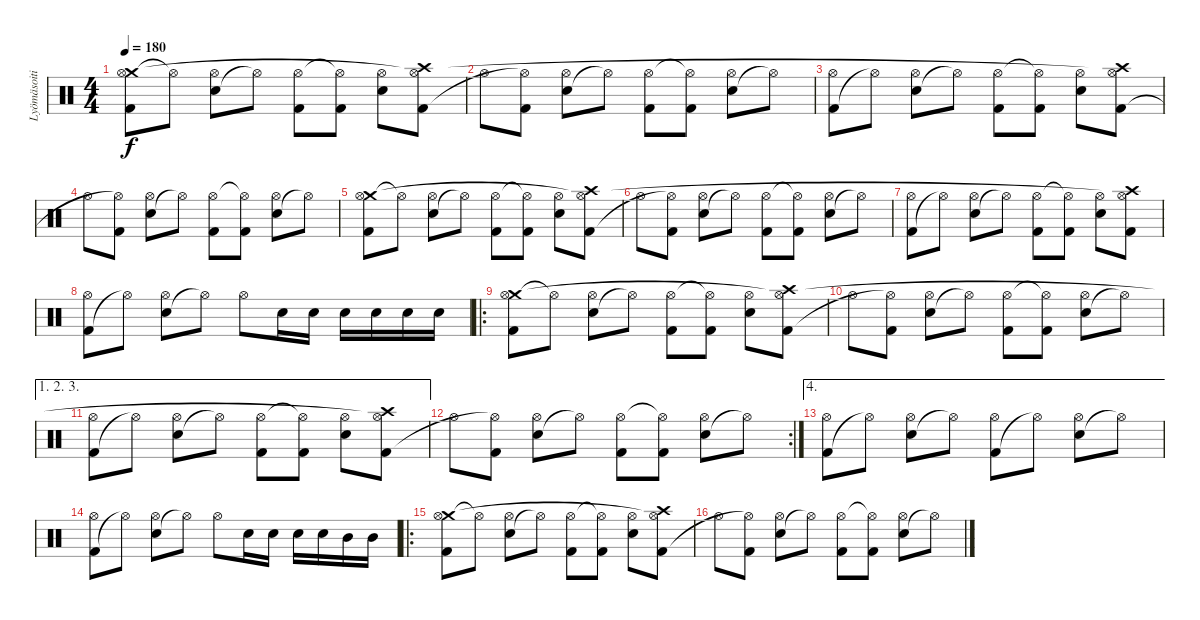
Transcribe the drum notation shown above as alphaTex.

\track ("Lyömäsoitin" "Lyömäsoiti") {instrument percussion}
\staff {score}
\articulation defaults
\ts (4 4)
\tempo 180
\clef neutral
\ks c
("Crash medium (hit)" "Kick (hit) 2" "Hi-Hat (open)").8{dy f} "Hi-Hat (open)"{t}.8 ("Electric Snare (hit)" "Hi-Hat (open)").8 "Hi-Hat (open)"{t}.8 ("Kick (hit) 2" "Hi-Hat (open)").8 ("Kick (hit) 2" "Hi-Hat (open)"{t}).8 ("Electric Snare (hit)" "Hi-Hat (open)").8 ("Crash high (hit)" "Kick (hit) 2" "Hi-Hat (open)"{t}).8 |
"Hi-Hat (open)".8 ("Kick (hit) 2" "Hi-Hat (open)"{t}).8 ("Electric Snare (hit)" "Hi-Hat (open)").8 "Hi-Hat (open)"{t}.8 ("Kick (hit) 2" "Hi-Hat (open)").8 ("Kick (hit) 2" "Hi-Hat (open)"{t}).8 ("Electric Snare (hit)" "Hi-Hat (open)").8 "Hi-Hat (open)"{t}.8 |
("Kick (hit) 2" "Hi-Hat (open)").8 "Hi-Hat (open)"{t}.8 ("Electric Snare (hit)" "Hi-Hat (open)").8 "Hi-Hat (open)"{t}.8 ("Kick (hit) 2" "Hi-Hat (open)").8 ("Kick (hit) 2" "Hi-Hat (open)"{t}).8 ("Electric Snare (hit)" "Hi-Hat (open)").8 ("Crash high (hit)" "Kick (hit) 2" "Hi-Hat (open)"{t}).8 |
"Hi-Hat (open)".8 ("Kick (hit) 2" "Hi-Hat (open)"{t}).8 ("Electric Snare (hit)" "Hi-Hat (open)").8 "Hi-Hat (open)"{t}.8 ("Kick (hit) 2" "Hi-Hat (open)").8 ("Kick (hit) 2" "Hi-Hat (open)"{t}).8 ("Electric Snare (hit)" "Hi-Hat (open)").8 "Hi-Hat (open)"{t}.8 |
("Crash medium (hit)" "Kick (hit) 2" "Hi-Hat (open)").8 "Hi-Hat (open)"{t}.8 ("Electric Snare (hit)" "Hi-Hat (open)").8 "Hi-Hat (open)"{t}.8 ("Kick (hit) 2" "Hi-Hat (open)").8 ("Kick (hit) 2" "Hi-Hat (open)"{t}).8 ("Electric Snare (hit)" "Hi-Hat (open)").8 ("Crash high (hit)" "Kick (hit) 2" "Hi-Hat (open)"{t}).8 |
"Hi-Hat (open)".8 ("Kick (hit) 2" "Hi-Hat (open)"{t}).8 ("Electric Snare (hit)" "Hi-Hat (open)").8 "Hi-Hat (open)"{t}.8 ("Kick (hit) 2" "Hi-Hat (open)").8 ("Kick (hit) 2" "Hi-Hat (open)"{t}).8 ("Electric Snare (hit)" "Hi-Hat (open)").8 "Hi-Hat (open)"{t}.8 |
("Kick (hit) 2" "Hi-Hat (open)").8 "Hi-Hat (open)"{t}.8 ("Electric Snare (hit)" "Hi-Hat (open)").8 "Hi-Hat (open)"{t}.8 ("Kick (hit) 2" "Hi-Hat (open)").8 ("Kick (hit) 2" "Hi-Hat (open)"{t}).8 ("Electric Snare (hit)" "Hi-Hat (open)").8 ("Crash high (hit)" "Kick (hit) 2" "Hi-Hat (open)"{t}).8 |
("Kick (hit) 2" "Hi-Hat (open)").8 "Hi-Hat (open)"{t}.8 ("Electric Snare (hit)" "Hi-Hat (open)").8 "Hi-Hat (open)"{t}.8 "Hi-Hat (open)".8 "Electric Snare (hit)".16 "Electric Snare (hit)".16 "Electric Snare (hit)".16 "Electric Snare (hit)".16 "Electric Snare (hit)".16 "Electric Snare (hit)".16 |
\ro
("Crash medium (hit)" "Kick (hit) 2" "Hi-Hat (open)").8 "Hi-Hat (open)"{t}.8 ("Electric Snare (hit)" "Hi-Hat (open)").8 "Hi-Hat (open)"{t}.8 ("Kick (hit) 2" "Hi-Hat (open)").8 ("Kick (hit) 2" "Hi-Hat (open)"{t}).8 ("Electric Snare (hit)" "Hi-Hat (open)").8 ("Crash high (hit)" "Kick (hit) 2" "Hi-Hat (open)"{t}).8 |
"Hi-Hat (open)".8 ("Kick (hit) 2" "Hi-Hat (open)"{t}).8 ("Electric Snare (hit)" "Hi-Hat (open)").8 "Hi-Hat (open)"{t}.8 ("Kick (hit) 2" "Hi-Hat (open)").8 ("Kick (hit) 2" "Hi-Hat (open)"{t}).8 ("Electric Snare (hit)" "Hi-Hat (open)").8 "Hi-Hat (open)"{t}.8 |
\ae (1 2 3)
("Kick (hit) 2" "Hi-Hat (open)").8 "Hi-Hat (open)"{t}.8 ("Electric Snare (hit)" "Hi-Hat (open)").8 "Hi-Hat (open)"{t}.8 ("Kick (hit) 2" "Hi-Hat (open)").8 ("Kick (hit) 2" "Hi-Hat (open)"{t}).8 ("Electric Snare (hit)" "Hi-Hat (open)").8 ("Crash high (hit)" "Kick (hit) 2" "Hi-Hat (open)"{t}).8 |
\rc 2 "Hi-Hat (open)".8
("Kick (hit) 2" "Hi-Hat (open)"{t}).8 ("Electric Snare (hit)" "Hi-Hat (open)").8 "Hi-Hat (open)"{t}.8 ("Kick (hit) 2" "Hi-Hat (open)").8 ("Kick (hit) 2" "Hi-Hat (open)"{t}).8 ("Electric Snare (hit)" "Hi-Hat (open)").8 "Hi-Hat (open)"{t}.8 |
\ae 4
("Kick (hit) 2" "Hi-Hat (open)").8 "Hi-Hat (open)"{t}.8 ("Electric Snare (hit)" "Hi-Hat (open)").8 "Hi-Hat (open)"{t}.8 ("Kick (hit) 2" "Hi-Hat (open)").8 "Hi-Hat (open)"{t}.8 ("Electric Snare (hit)" "Hi-Hat (open)").8 "Hi-Hat (open)"{t}.8 |
("Kick (hit) 2" "Hi-Hat (open)").8 "Hi-Hat (open)"{t}.8 ("Electric Snare (hit)" "Hi-Hat (open)").8 "Hi-Hat (open)"{t}.8 "Hi-Hat (open)".8 "Electric Snare (hit)".16 "Electric Snare (hit)".16 "Electric Snare (hit)".16 "Electric Snare (hit)".16 "Mid Tom (hit)".16 "Mid Tom (hit)".16 |
\ro
("Crash medium (hit)" "Kick (hit) 2" "Hi-Hat (open)").8 "Hi-Hat (open)"{t}.8 ("Electric Snare (hit)" "Hi-Hat (open)").8 "Hi-Hat (open)"{t}.8 ("Kick (hit) 2" "Hi-Hat (open)").8 ("Kick (hit) 2" "Hi-Hat (open)"{t}).8 ("Electric Snare (hit)" "Hi-Hat (open)").8 ("Crash high (hit)" "Kick (hit) 2" "Hi-Hat (open)"{t}).8 |
"Hi-Hat (open)".8 ("Kick (hit) 2" "Hi-Hat (open)"{t}).8 ("Electric Snare (hit)" "Hi-Hat (open)").8 "Hi-Hat (open)"{t}.8 ("Kick (hit) 2" "Hi-Hat (open)").8 ("Kick (hit) 2" "Hi-Hat (open)"{t}).8 ("Electric Snare (hit)" "Hi-Hat (open)").8 "Hi-Hat (open)"{t}.8
